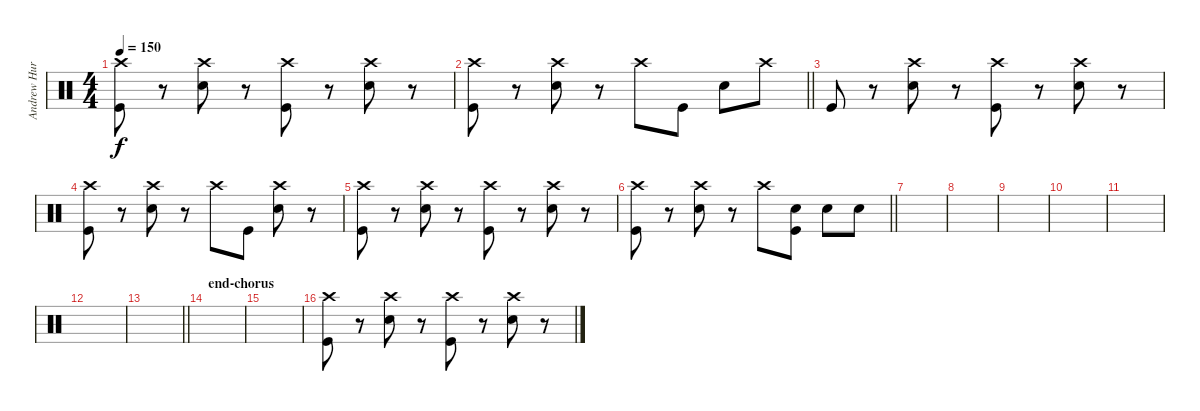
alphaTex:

\track ("Andrew Hurley (Drums)" "Andrew Hur") {instrument percussion}
\staff {score}
\articulation defaults
\ts (4 4)
\tempo 150
\clef neutral
\ks c
("Crash high (hit)" "Kick (hit)").8{dy f} r.8 ("Crash high (hit)" "Snare (hit) 2").8 r.8 ("Crash high (hit)" "Kick (hit)").8 r.8 ("Crash high (hit)" "Snare (hit) 2").8 r.8 |
\barLineRight lightlight
("Crash high (hit)" "Kick (hit)").8 r.8 ("Crash high (hit)" "Snare (hit) 2").8 r.8 "Crash high (hit)".8 "Kick (hit)".8 "Snare (hit) 2".8 "Crash high (hit)".8 |
"Kick (hit)".8 r.8 ("Crash high (hit)" "Snare (hit) 2").8 r.8 ("Crash high (hit)" "Kick (hit)").8 r.8 ("Crash high (hit)" "Snare (hit) 2").8 r.8 |
("Crash high (hit)" "Kick (hit)").8 r.8 ("Crash high (hit)" "Snare (hit) 2").8 r.8 "Crash high (hit)".8 "Kick (hit)".8 ("Crash high (hit)" "Snare (hit) 2").8 r.8 |
("Crash high (hit)" "Kick (hit)").8 r.8 ("Crash high (hit)" "Snare (hit) 2").8 r.8 ("Crash high (hit)" "Kick (hit)").8 r.8 ("Crash high (hit)" "Snare (hit) 2").8 r.8 |
\barLineRight lightlight
("Crash high (hit)" "Kick (hit)").8 r.8 ("Crash high (hit)" "Snare (hit) 2").8 r.8 "Crash high (hit)".8 ("Snare (hit) 2" "Kick (hit)").8 "Snare (hit) 2".8 "Snare (hit) 2".8 |
|
|
|
|
|
|
\barLineRight lightlight
|
\section ("" "end-chorus")
|
|
("Crash high (hit)" "Kick (hit)").8 r.8 ("Crash high (hit)" "Snare (hit) 2").8 r.8 ("Crash high (hit)" "Kick (hit)").8 r.8 ("Crash high (hit)" "Snare (hit) 2").8 r.8
